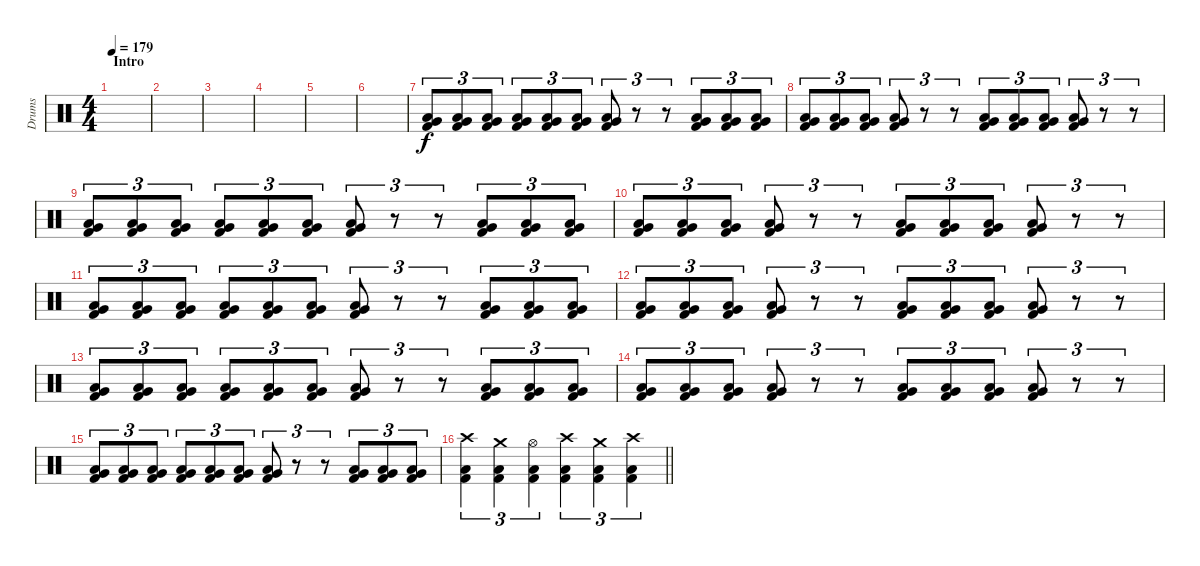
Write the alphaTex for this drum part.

\track ("Drums" "Drums") {instrument percussion}
\staff {score}
\articulation defaults
\ts (4 4)
\section ("" "Intro")
\tempo 179
\clef neutral
\ks c
|
|
|
|
|
|
("Very Low Tom (hit)" "Low Floor Tom (hit)" "Kick (hit) 2").8{tu (3 2) volume 10} ("Very Low Tom (hit)" "Low Floor Tom (hit)" "Kick (hit) 2").8{tu (3 2)} ("Very Low Tom (hit)" "Low Floor Tom (hit)" "Kick (hit) 2").8{tu (3 2)} ("Very Low Tom (hit)" "Low Floor Tom (hit)" "Kick (hit) 2").8{tu (3 2)} ("Very Low Tom (hit)" "Low Floor Tom (hit)" "Kick (hit) 2").8{tu (3 2)} ("Very Low Tom (hit)" "Low Floor Tom (hit)" "Kick (hit) 2").8{tu (3 2)} ("Very Low Tom (hit)" "Low Floor Tom (hit)" "Kick (hit) 2").8{tu (3 2)} r.8{tu (3 2)} r.8{tu (3 2)} ("Very Low Tom (hit)" "Low Floor Tom (hit)" "Kick (hit) 2").8{tu (3 2)} ("Very Low Tom (hit)" "Low Floor Tom (hit)" "Kick (hit) 2").8{tu (3 2)} ("Very Low Tom (hit)" "Low Floor Tom (hit)" "Kick (hit) 2").8{tu (3 2)} |
("Very Low Tom (hit)" "Low Floor Tom (hit)" "Kick (hit) 2").8{tu (3 2)} ("Very Low Tom (hit)" "Low Floor Tom (hit)" "Kick (hit) 2").8{tu (3 2)} ("Very Low Tom (hit)" "Low Floor Tom (hit)" "Kick (hit) 2").8{tu (3 2)} ("Very Low Tom (hit)" "Low Floor Tom (hit)" "Kick (hit) 2").8{tu (3 2)} r.8{tu (3 2)} r.8{tu (3 2)} ("Very Low Tom (hit)" "Low Floor Tom (hit)" "Kick (hit) 2").8{tu (3 2)} ("Very Low Tom (hit)" "Low Floor Tom (hit)" "Kick (hit) 2").8{tu (3 2)} ("Very Low Tom (hit)" "Low Floor Tom (hit)" "Kick (hit) 2").8{tu (3 2)} ("Very Low Tom (hit)" "Low Floor Tom (hit)" "Kick (hit) 2").8{tu (3 2)} r.8{tu (3 2)} r.8{tu (3 2)} |
("Very Low Tom (hit)" "Low Floor Tom (hit)" "Kick (hit) 2").8{tu (3 2)} ("Very Low Tom (hit)" "Low Floor Tom (hit)" "Kick (hit) 2").8{tu (3 2)} ("Very Low Tom (hit)" "Low Floor Tom (hit)" "Kick (hit) 2").8{tu (3 2)} ("Very Low Tom (hit)" "Low Floor Tom (hit)" "Kick (hit) 2").8{tu (3 2)} ("Very Low Tom (hit)" "Low Floor Tom (hit)" "Kick (hit) 2").8{tu (3 2)} ("Very Low Tom (hit)" "Low Floor Tom (hit)" "Kick (hit) 2").8{tu (3 2)} ("Very Low Tom (hit)" "Low Floor Tom (hit)" "Kick (hit) 2").8{tu (3 2)} r.8{tu (3 2)} r.8{tu (3 2)} ("Very Low Tom (hit)" "Low Floor Tom (hit)" "Kick (hit) 2").8{tu (3 2)} ("Very Low Tom (hit)" "Low Floor Tom (hit)" "Kick (hit) 2").8{tu (3 2)} ("Very Low Tom (hit)" "Low Floor Tom (hit)" "Kick (hit) 2").8{tu (3 2)} |
("Very Low Tom (hit)" "Low Floor Tom (hit)" "Kick (hit) 2").8{tu (3 2)} ("Very Low Tom (hit)" "Low Floor Tom (hit)" "Kick (hit) 2").8{tu (3 2)} ("Very Low Tom (hit)" "Low Floor Tom (hit)" "Kick (hit) 2").8{tu (3 2)} ("Very Low Tom (hit)" "Low Floor Tom (hit)" "Kick (hit) 2").8{tu (3 2)} r.8{tu (3 2)} r.8{tu (3 2)} ("Very Low Tom (hit)" "Low Floor Tom (hit)" "Kick (hit) 2").8{tu (3 2)} ("Very Low Tom (hit)" "Low Floor Tom (hit)" "Kick (hit) 2").8{tu (3 2)} ("Very Low Tom (hit)" "Low Floor Tom (hit)" "Kick (hit) 2").8{tu (3 2)} ("Very Low Tom (hit)" "Low Floor Tom (hit)" "Kick (hit) 2").8{tu (3 2)} r.8{tu (3 2)} r.8{tu (3 2)} |
("Very Low Tom (hit)" "Low Floor Tom (hit)" "Kick (hit) 2").8{tu (3 2) volume 14} ("Very Low Tom (hit)" "Low Floor Tom (hit)" "Kick (hit) 2").8{tu (3 2)} ("Very Low Tom (hit)" "Low Floor Tom (hit)" "Kick (hit) 2").8{tu (3 2)} ("Very Low Tom (hit)" "Low Floor Tom (hit)" "Kick (hit) 2").8{tu (3 2)} ("Very Low Tom (hit)" "Low Floor Tom (hit)" "Kick (hit) 2").8{tu (3 2)} ("Very Low Tom (hit)" "Low Floor Tom (hit)" "Kick (hit) 2").8{tu (3 2)} ("Very Low Tom (hit)" "Low Floor Tom (hit)" "Kick (hit) 2").8{tu (3 2)} r.8{tu (3 2)} r.8{tu (3 2)} ("Very Low Tom (hit)" "Low Floor Tom (hit)" "Kick (hit) 2").8{tu (3 2)} ("Very Low Tom (hit)" "Low Floor Tom (hit)" "Kick (hit) 2").8{tu (3 2)} ("Very Low Tom (hit)" "Low Floor Tom (hit)" "Kick (hit) 2").8{tu (3 2)} |
("Very Low Tom (hit)" "Low Floor Tom (hit)" "Kick (hit) 2").8{tu (3 2)} ("Very Low Tom (hit)" "Low Floor Tom (hit)" "Kick (hit) 2").8{tu (3 2)} ("Very Low Tom (hit)" "Low Floor Tom (hit)" "Kick (hit) 2").8{tu (3 2)} ("Very Low Tom (hit)" "Low Floor Tom (hit)" "Kick (hit) 2").8{tu (3 2)} r.8{tu (3 2)} r.8{tu (3 2)} ("Very Low Tom (hit)" "Low Floor Tom (hit)" "Kick (hit) 2").8{tu (3 2)} ("Very Low Tom (hit)" "Low Floor Tom (hit)" "Kick (hit) 2").8{tu (3 2)} ("Very Low Tom (hit)" "Low Floor Tom (hit)" "Kick (hit) 2").8{tu (3 2)} ("Very Low Tom (hit)" "Low Floor Tom (hit)" "Kick (hit) 2").8{tu (3 2)} r.8{tu (3 2)} r.8{tu (3 2)} |
("Very Low Tom (hit)" "Low Floor Tom (hit)" "Kick (hit) 2").8{tu (3 2)} ("Very Low Tom (hit)" "Low Floor Tom (hit)" "Kick (hit) 2").8{tu (3 2)} ("Very Low Tom (hit)" "Low Floor Tom (hit)" "Kick (hit) 2").8{tu (3 2)} ("Very Low Tom (hit)" "Low Floor Tom (hit)" "Kick (hit) 2").8{tu (3 2)} ("Very Low Tom (hit)" "Low Floor Tom (hit)" "Kick (hit) 2").8{tu (3 2)} ("Very Low Tom (hit)" "Low Floor Tom (hit)" "Kick (hit) 2").8{tu (3 2)} ("Very Low Tom (hit)" "Low Floor Tom (hit)" "Kick (hit) 2").8{tu (3 2)} r.8{tu (3 2)} r.8{tu (3 2)} ("Very Low Tom (hit)" "Low Floor Tom (hit)" "Kick (hit) 2").8{tu (3 2)} ("Very Low Tom (hit)" "Low Floor Tom (hit)" "Kick (hit) 2").8{tu (3 2)} ("Very Low Tom (hit)" "Low Floor Tom (hit)" "Kick (hit) 2").8{tu (3 2)} |
("Very Low Tom (hit)" "Low Floor Tom (hit)" "Kick (hit) 2").8{tu (3 2)} ("Very Low Tom (hit)" "Low Floor Tom (hit)" "Kick (hit) 2").8{tu (3 2)} ("Very Low Tom (hit)" "Low Floor Tom (hit)" "Kick (hit) 2").8{tu (3 2)} ("Very Low Tom (hit)" "Low Floor Tom (hit)" "Kick (hit) 2").8{tu (3 2)} r.8{tu (3 2)} r.8{tu (3 2)} ("Very Low Tom (hit)" "Low Floor Tom (hit)" "Kick (hit) 2").8{tu (3 2)} ("Very Low Tom (hit)" "Low Floor Tom (hit)" "Kick (hit) 2").8{tu (3 2)} ("Very Low Tom (hit)" "Low Floor Tom (hit)" "Kick (hit) 2").8{tu (3 2)} ("Very Low Tom (hit)" "Low Floor Tom (hit)" "Kick (hit) 2").8{tu (3 2)} r.8{tu (3 2)} r.8{tu (3 2)} |
("Very Low Tom (hit)" "Low Floor Tom (hit)" "Kick (hit) 2").8{tu (3 2)} ("Very Low Tom (hit)" "Low Floor Tom (hit)" "Kick (hit) 2").8{tu (3 2)} ("Very Low Tom (hit)" "Low Floor Tom (hit)" "Kick (hit) 2").8{tu (3 2)} ("Very Low Tom (hit)" "Low Floor Tom (hit)" "Kick (hit) 2").8{tu (3 2)} ("Very Low Tom (hit)" "Low Floor Tom (hit)" "Kick (hit) 2").8{tu (3 2)} ("Very Low Tom (hit)" "Low Floor Tom (hit)" "Kick (hit) 2").8{tu (3 2)} ("Very Low Tom (hit)" "Low Floor Tom (hit)" "Kick (hit) 2").8{tu (3 2)} r.8{tu (3 2)} r.8{tu (3 2)} ("Very Low Tom (hit)" "Low Floor Tom (hit)" "Kick (hit) 2").8{tu (3 2)} ("Very Low Tom (hit)" "Low Floor Tom (hit)" "Kick (hit) 2").8{tu (3 2)} ("Very Low Tom (hit)" "Low Floor Tom (hit)" "Kick (hit) 2").8{tu (3 2)} |
\barLineRight lightlight
("Crash high (hit)" "Low Floor Tom (hit)" "Kick (hit) 2").4{tu (3 2)} ("Crash medium (hit)" "Low Floor Tom (hit)" "Kick (hit) 2").4{tu (3 2)} ("Hi-Hat (open)" "Low Floor Tom (hit)" "Kick (hit) 2").4{tu (3 2)} ("Crash high (hit)" "Low Floor Tom (hit)" "Kick (hit) 2").4{tu (3 2)} ("Crash medium (hit)" "Low Floor Tom (hit)" "Kick (hit) 2").4{tu (3 2)} ("Crash high (hit)" "Low Floor Tom (hit)" "Kick (hit) 2").4{tu (3 2)}
